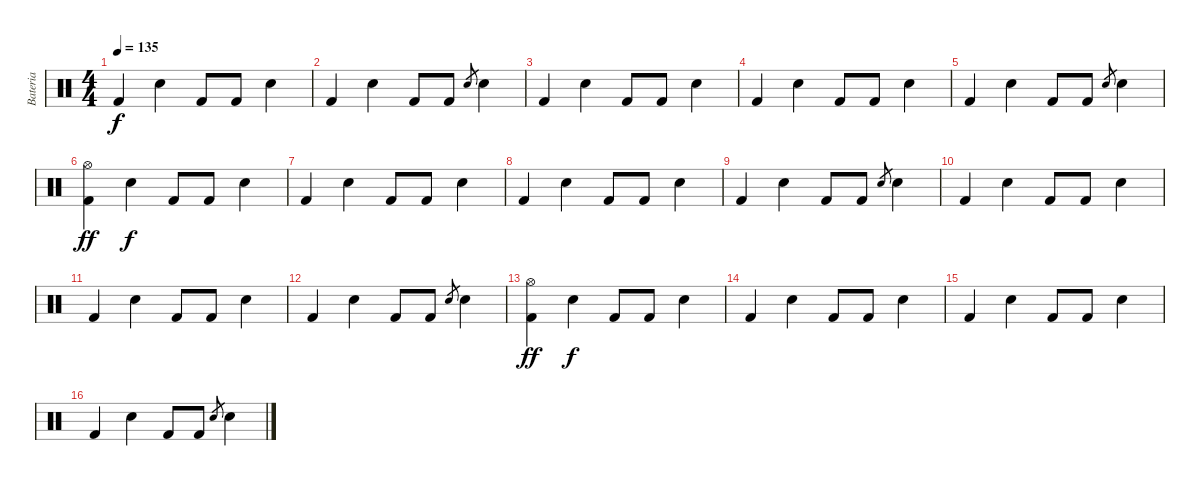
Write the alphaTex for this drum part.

\track ("Bateria" "Bateria") {instrument percussion}
\staff {score}
\articulation defaults
\ts (4 4)
\tempo 135
\clef neutral
\ks c "Kick (hit) 2".4{dy f} "Electric Snare (hit)".4 "Kick (hit) 2".8 "Kick (hit) 2".8 "Electric Snare (hit)".4
|
"Kick (hit) 2".4 "Electric Snare (hit)".4 "Kick (hit) 2".8 "Kick (hit) 2".8 "Electric Snare (hit)".8{gr} "Electric Snare (hit)".4 |
"Kick (hit) 2".4 "Electric Snare (hit)".4 "Kick (hit) 2".8 "Kick (hit) 2".8 "Electric Snare (hit)".4 |
"Kick (hit) 2".4 "Electric Snare (hit)".4 "Kick (hit) 2".8 "Kick (hit) 2".8 "Electric Snare (hit)".4 |
"Kick (hit) 2".4 "Electric Snare (hit)".4 "Kick (hit) 2".8 "Kick (hit) 2".8 "Electric Snare (hit)".8{gr} "Electric Snare (hit)".4 |
("Hi-Hat (open)" "Kick (hit) 2").4{dy ff} "Electric Snare (hit)".4{dy f} "Kick (hit) 2".8 "Kick (hit) 2".8 "Electric Snare (hit)".4 |
"Kick (hit) 2".4 "Electric Snare (hit)".4 "Kick (hit) 2".8 "Kick (hit) 2".8 "Electric Snare (hit)".4 |
"Kick (hit) 2".4 "Electric Snare (hit)".4 "Kick (hit) 2".8 "Kick (hit) 2".8 "Electric Snare (hit)".4 |
"Kick (hit) 2".4 "Electric Snare (hit)".4 "Kick (hit) 2".8 "Kick (hit) 2".8 "Electric Snare (hit)".8{gr} "Electric Snare (hit)".4 |
"Kick (hit) 2".4 "Electric Snare (hit)".4 "Kick (hit) 2".8 "Kick (hit) 2".8 "Electric Snare (hit)".4 |
"Kick (hit) 2".4 "Electric Snare (hit)".4 "Kick (hit) 2".8 "Kick (hit) 2".8 "Electric Snare (hit)".4 |
"Kick (hit) 2".4 "Electric Snare (hit)".4 "Kick (hit) 2".8 "Kick (hit) 2".8 "Electric Snare (hit)".8{gr} "Electric Snare (hit)".4 |
("Hi-Hat (open)" "Kick (hit) 2").4{dy ff} "Electric Snare (hit)".4{dy f} "Kick (hit) 2".8 "Kick (hit) 2".8 "Electric Snare (hit)".4 |
"Kick (hit) 2".4 "Electric Snare (hit)".4 "Kick (hit) 2".8 "Kick (hit) 2".8 "Electric Snare (hit)".4 |
"Kick (hit) 2".4 "Electric Snare (hit)".4 "Kick (hit) 2".8 "Kick (hit) 2".8 "Electric Snare (hit)".4 |
"Kick (hit) 2".4 "Electric Snare (hit)".4 "Kick (hit) 2".8 "Kick (hit) 2".8 "Electric Snare (hit)".8{gr} "Electric Snare (hit)".4
